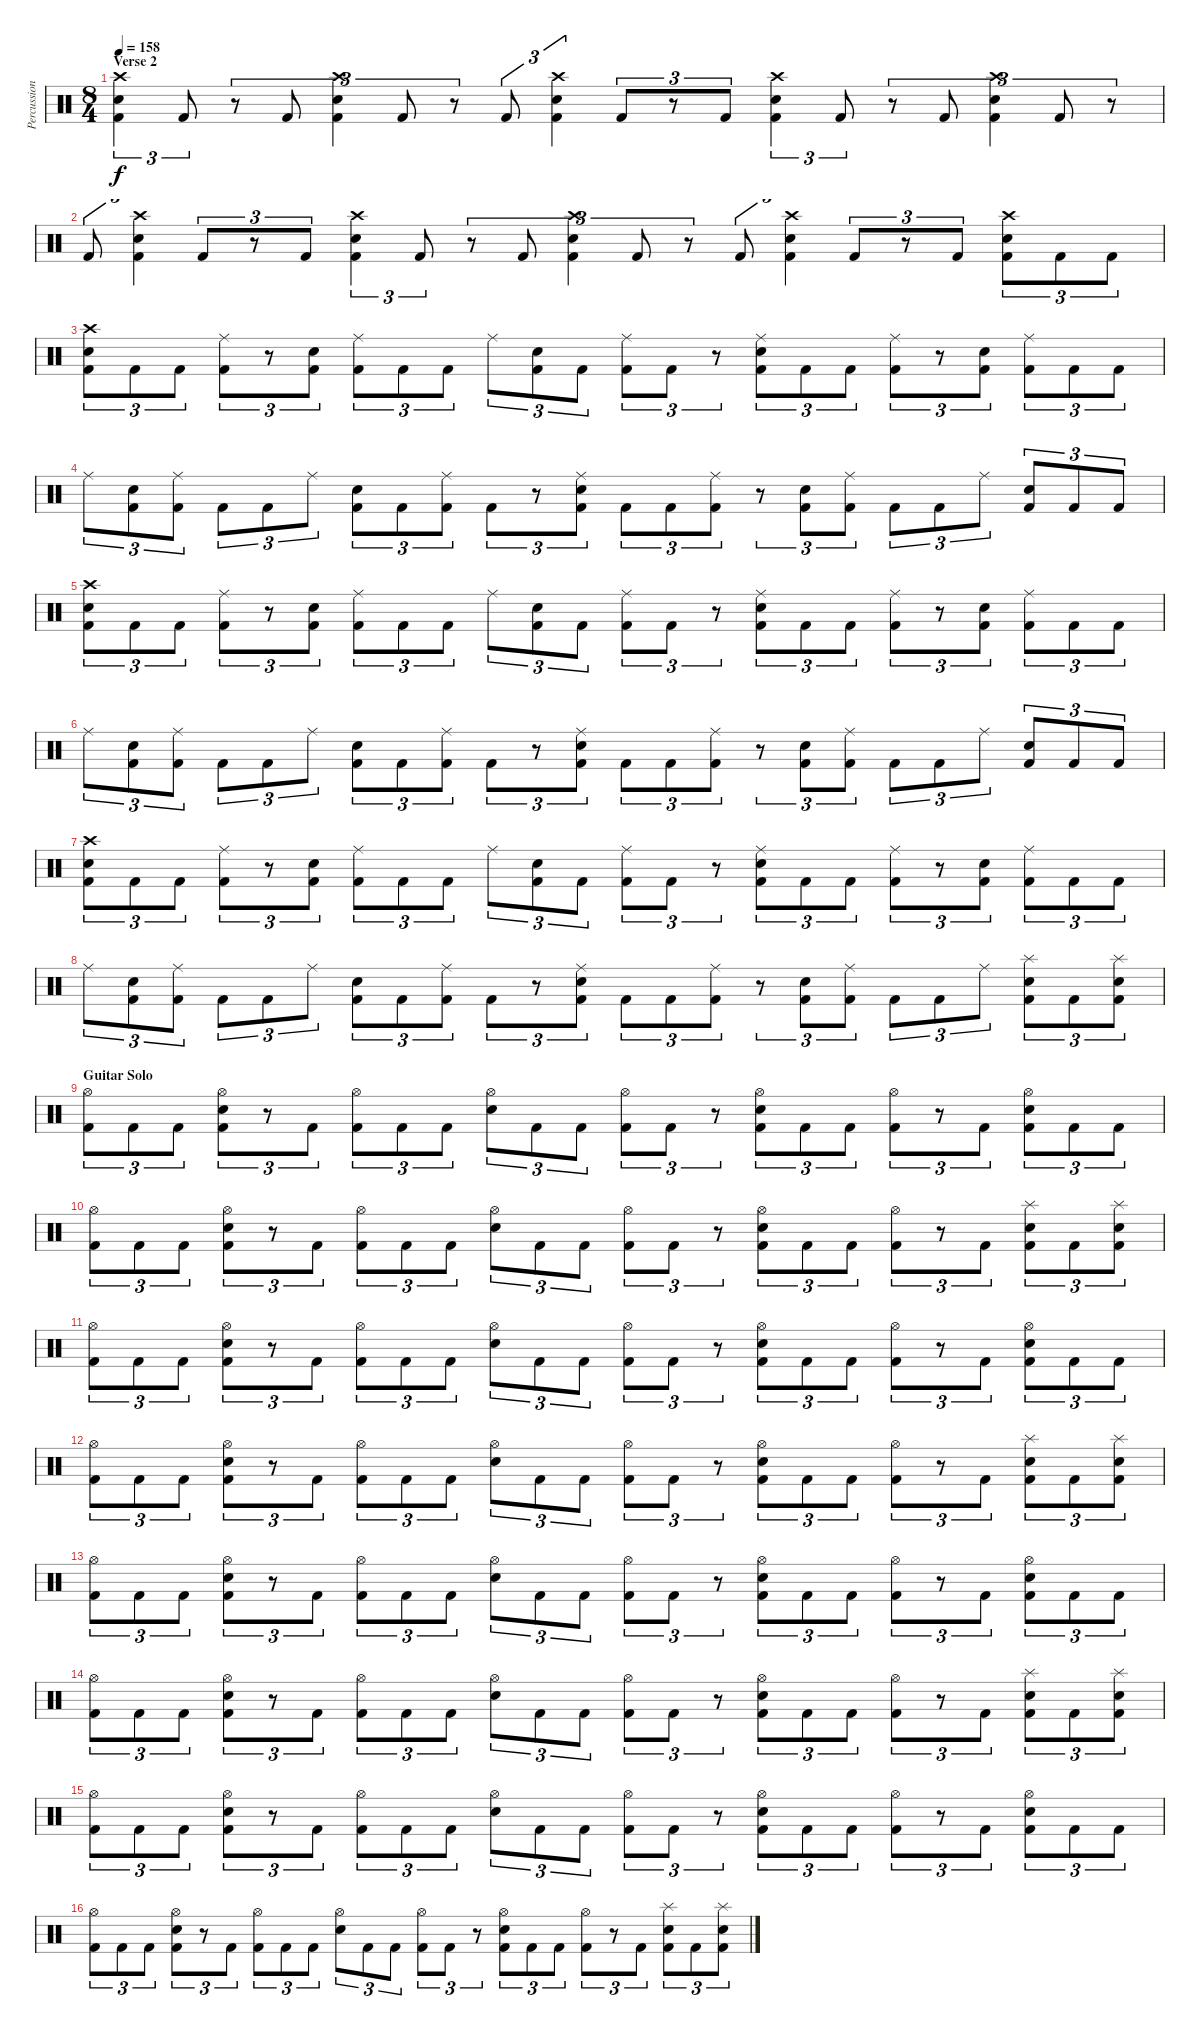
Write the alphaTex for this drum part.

\track ("Percussion" "Percussion") {instrument percussion}
\staff {score}
\articulation defaults
\ts (8 4)
\section ("" "Verse 2")
\tempo 158
\clef neutral
\ks c
("Crash high (hit)" "Electric Snare (hit)" "Kick (hit) 2").4{tu (3 2) dy f} "Kick (hit) 2".8{tu (3 2)} r.8{tu (3 2)} "Kick (hit) 2".8{tu (3 2)} ("Crash high (hit)" "Electric Snare (hit)" "Kick (hit) 2").4{tu (3 2)} "Kick (hit) 2".8{tu (3 2)} r.8{tu (3 2)} "Kick (hit) 2".8{tu (3 2)} ("Crash high (hit)" "Electric Snare (hit)" "Kick (hit) 2").4{tu (3 2)} "Kick (hit) 2".8{tu (3 2)} r.8{tu (3 2)} "Kick (hit) 2".8{tu (3 2)} ("Crash high (hit)" "Electric Snare (hit)" "Kick (hit) 2").4{tu (3 2)} "Kick (hit) 2".8{tu (3 2)} r.8{tu (3 2)} "Kick (hit) 2".8{tu (3 2)} ("Crash high (hit)" "Electric Snare (hit)" "Kick (hit) 2").4{tu (3 2)} "Kick (hit) 2".8{tu (3 2)} r.8{tu (3 2)} |
"Kick (hit) 2".8{tu (3 2)} ("Crash high (hit)" "Electric Snare (hit)" "Kick (hit) 2").4{tu (3 2)} "Kick (hit) 2".8{tu (3 2)} r.8{tu (3 2)} "Kick (hit) 2".8{tu (3 2)} ("Crash high (hit)" "Electric Snare (hit)" "Kick (hit) 2").4{tu (3 2)} "Kick (hit) 2".8{tu (3 2)} r.8{tu (3 2)} "Kick (hit) 2".8{tu (3 2)} ("Crash high (hit)" "Electric Snare (hit)" "Kick (hit) 2").4{tu (3 2)} "Kick (hit) 2".8{tu (3 2)} r.8{tu (3 2)} "Kick (hit) 2".8{tu (3 2)} ("Crash high (hit)" "Electric Snare (hit)" "Kick (hit) 2").4{tu (3 2)} "Kick (hit) 2".8{tu (3 2)} r.8{tu (3 2)} "Kick (hit) 2".8{tu (3 2)} ("Crash high (hit)" "Electric Snare (hit)" "Kick (hit) 2").8{tu (3 2)} "Kick (hit) 2".8{tu (3 2)} "Kick (hit) 2".8{tu (3 2)} |
("Crash high (hit)" "Electric Snare (hit)" "Kick (hit) 2").8{tu (3 2)} "Kick (hit) 2".8{tu (3 2)} "Kick (hit) 2".8{tu (3 2)} ("Ride (middle)" "Kick (hit) 2").8{tu (3 2)} r.8{tu (3 2)} ("Electric Snare (hit)" "Kick (hit) 2").8{tu (3 2)} ("Ride (middle)" "Kick (hit) 2").8{tu (3 2)} "Kick (hit) 2".8{tu (3 2)} "Kick (hit) 2".8{tu (3 2)} "Ride (middle)".8{tu (3 2)} ("Electric Snare (hit)" "Kick (hit) 2").8{tu (3 2)} "Kick (hit) 2".8{tu (3 2)} ("Ride (middle)" "Kick (hit) 2").8{tu (3 2)} "Kick (hit) 2".8{tu (3 2)} r.8{tu (3 2)} ("Ride (middle)" "Electric Snare (hit)" "Kick (hit) 2").8{tu (3 2)} "Kick (hit) 2".8{tu (3 2)} "Kick (hit) 2".8{tu (3 2)} ("Ride (middle)" "Kick (hit) 2").8{tu (3 2)} r.8{tu (3 2)} ("Electric Snare (hit)" "Kick (hit) 2").8{tu (3 2)} ("Ride (middle)" "Kick (hit) 2").8{tu (3 2)} "Kick (hit) 2".8{tu (3 2)} "Kick (hit) 2".8{tu (3 2)} |
"Ride (middle)".8{tu (3 2)} ("Electric Snare (hit)" "Kick (hit) 2").8{tu (3 2)} ("Ride (middle)" "Kick (hit) 2").8{tu (3 2)} "Kick (hit) 2".8{tu (3 2)} "Kick (hit) 2".8{tu (3 2)} "Ride (middle)".8{tu (3 2)} ("Electric Snare (hit)" "Kick (hit) 2").8{tu (3 2)} "Kick (hit) 2".8{tu (3 2)} ("Ride (middle)" "Kick (hit) 2").8{tu (3 2)} "Kick (hit) 2".8{tu (3 2)} r.8{tu (3 2)} ("Ride (middle)" "Electric Snare (hit)" "Kick (hit) 2").8{tu (3 2)} "Kick (hit) 2".8{tu (3 2)} "Kick (hit) 2".8{tu (3 2)} ("Ride (middle)" "Kick (hit) 2").8{tu (3 2)} r.8{tu (3 2)} ("Electric Snare (hit)" "Kick (hit) 2").8{tu (3 2)} ("Ride (middle)" "Kick (hit) 2").8{tu (3 2)} "Kick (hit) 2".8{tu (3 2)} "Kick (hit) 2".8{tu (3 2)} "Ride (middle)".8{tu (3 2)} ("Electric Snare (hit)" "Kick (hit) 2").8{tu (3 2)} "Kick (hit) 2".8{tu (3 2)} "Kick (hit) 2".8{tu (3 2)} |
("Crash high (hit)" "Electric Snare (hit)" "Kick (hit) 2").8{tu (3 2)} "Kick (hit) 2".8{tu (3 2)} "Kick (hit) 2".8{tu (3 2)} ("Ride (middle)" "Kick (hit) 2").8{tu (3 2)} r.8{tu (3 2)} ("Electric Snare (hit)" "Kick (hit) 2").8{tu (3 2)} ("Ride (middle)" "Kick (hit) 2").8{tu (3 2)} "Kick (hit) 2".8{tu (3 2)} "Kick (hit) 2".8{tu (3 2)} "Ride (middle)".8{tu (3 2)} ("Electric Snare (hit)" "Kick (hit) 2").8{tu (3 2)} "Kick (hit) 2".8{tu (3 2)} ("Ride (middle)" "Kick (hit) 2").8{tu (3 2)} "Kick (hit) 2".8{tu (3 2)} r.8{tu (3 2)} ("Ride (middle)" "Electric Snare (hit)" "Kick (hit) 2").8{tu (3 2)} "Kick (hit) 2".8{tu (3 2)} "Kick (hit) 2".8{tu (3 2)} ("Ride (middle)" "Kick (hit) 2").8{tu (3 2)} r.8{tu (3 2)} ("Electric Snare (hit)" "Kick (hit) 2").8{tu (3 2)} ("Ride (middle)" "Kick (hit) 2").8{tu (3 2)} "Kick (hit) 2".8{tu (3 2)} "Kick (hit) 2".8{tu (3 2)} |
"Ride (middle)".8{tu (3 2)} ("Electric Snare (hit)" "Kick (hit) 2").8{tu (3 2)} ("Ride (middle)" "Kick (hit) 2").8{tu (3 2)} "Kick (hit) 2".8{tu (3 2)} "Kick (hit) 2".8{tu (3 2)} "Ride (middle)".8{tu (3 2)} ("Electric Snare (hit)" "Kick (hit) 2").8{tu (3 2)} "Kick (hit) 2".8{tu (3 2)} ("Ride (middle)" "Kick (hit) 2").8{tu (3 2)} "Kick (hit) 2".8{tu (3 2)} r.8{tu (3 2)} ("Ride (middle)" "Electric Snare (hit)" "Kick (hit) 2").8{tu (3 2)} "Kick (hit) 2".8{tu (3 2)} "Kick (hit) 2".8{tu (3 2)} ("Ride (middle)" "Kick (hit) 2").8{tu (3 2)} r.8{tu (3 2)} ("Electric Snare (hit)" "Kick (hit) 2").8{tu (3 2)} ("Ride (middle)" "Kick (hit) 2").8{tu (3 2)} "Kick (hit) 2".8{tu (3 2)} "Kick (hit) 2".8{tu (3 2)} "Ride (middle)".8{tu (3 2)} ("Electric Snare (hit)" "Kick (hit) 2").8{tu (3 2)} "Kick (hit) 2".8{tu (3 2)} "Kick (hit) 2".8{tu (3 2)} |
("Crash high (hit)" "Electric Snare (hit)" "Kick (hit) 2").8{tu (3 2)} "Kick (hit) 2".8{tu (3 2)} "Kick (hit) 2".8{tu (3 2)} ("Ride (middle)" "Kick (hit) 2").8{tu (3 2)} r.8{tu (3 2)} ("Electric Snare (hit)" "Kick (hit) 2").8{tu (3 2)} ("Ride (middle)" "Kick (hit) 2").8{tu (3 2)} "Kick (hit) 2".8{tu (3 2)} "Kick (hit) 2".8{tu (3 2)} "Ride (middle)".8{tu (3 2)} ("Electric Snare (hit)" "Kick (hit) 2").8{tu (3 2)} "Kick (hit) 2".8{tu (3 2)} ("Ride (middle)" "Kick (hit) 2").8{tu (3 2)} "Kick (hit) 2".8{tu (3 2)} r.8{tu (3 2)} ("Ride (middle)" "Electric Snare (hit)" "Kick (hit) 2").8{tu (3 2)} "Kick (hit) 2".8{tu (3 2)} "Kick (hit) 2".8{tu (3 2)} ("Ride (middle)" "Kick (hit) 2").8{tu (3 2)} r.8{tu (3 2)} ("Electric Snare (hit)" "Kick (hit) 2").8{tu (3 2)} ("Ride (middle)" "Kick (hit) 2").8{tu (3 2)} "Kick (hit) 2".8{tu (3 2)} "Kick (hit) 2".8{tu (3 2)} |
"Ride (middle)".8{tu (3 2)} ("Electric Snare (hit)" "Kick (hit) 2").8{tu (3 2)} ("Ride (middle)" "Kick (hit) 2").8{tu (3 2)} "Kick (hit) 2".8{tu (3 2)} "Kick (hit) 2".8{tu (3 2)} "Ride (middle)".8{tu (3 2)} ("Electric Snare (hit)" "Kick (hit) 2").8{tu (3 2)} "Kick (hit) 2".8{tu (3 2)} ("Ride (middle)" "Kick (hit) 2").8{tu (3 2)} "Kick (hit) 2".8{tu (3 2)} r.8{tu (3 2)} ("Ride (middle)" "Electric Snare (hit)" "Kick (hit) 2").8{tu (3 2)} "Kick (hit) 2".8{tu (3 2)} "Kick (hit) 2".8{tu (3 2)} ("Ride (middle)" "Kick (hit) 2").8{tu (3 2)} r.8{tu (3 2)} ("Electric Snare (hit)" "Kick (hit) 2").8{tu (3 2)} ("Ride (middle)" "Kick (hit) 2").8{tu (3 2)} "Kick (hit) 2".8{tu (3 2)} "Kick (hit) 2".8{tu (3 2)} "Ride (middle)".8{tu (3 2)} ("Splash (hit)" "Electric Snare (hit)" "Kick (hit) 2").8{tu (3 2)} "Kick (hit) 2".8{tu (3 2)} ("Splash (hit)" "Electric Snare (hit)" "Kick (hit) 2").8{tu (3 2)} |
\section ("" "Guitar Solo")
("Hi-Hat (open)" "Kick (hit) 2").8{tu (3 2)} "Kick (hit) 2".8{tu (3 2)} "Kick (hit) 2".8{tu (3 2)} ("Hi-Hat (open)" "Electric Snare (hit)" "Kick (hit) 2").8{tu (3 2)} r.8{tu (3 2)} "Kick (hit) 2".8{tu (3 2)} ("Hi-Hat (open)" "Kick (hit) 2").8{tu (3 2)} "Kick (hit) 2".8{tu (3 2)} "Kick (hit) 2".8{tu (3 2)} ("Hi-Hat (open)" "Electric Snare (hit)").8{tu (3 2)} "Kick (hit) 2".8{tu (3 2)} "Kick (hit) 2".8{tu (3 2)} ("Hi-Hat (open)" "Kick (hit) 2").8{tu (3 2)} "Kick (hit) 2".8{tu (3 2)} r.8{tu (3 2)} ("Hi-Hat (open)" "Electric Snare (hit)" "Kick (hit) 2").8{tu (3 2)} "Kick (hit) 2".8{tu (3 2)} "Kick (hit) 2".8{tu (3 2)} ("Hi-Hat (open)" "Kick (hit) 2").8{tu (3 2)} r.8{tu (3 2)} "Kick (hit) 2".8{tu (3 2)} ("Hi-Hat (open)" "Electric Snare (hit)" "Kick (hit) 2").8{tu (3 2)} "Kick (hit) 2".8{tu (3 2)} "Kick (hit) 2".8{tu (3 2)} |
("Hi-Hat (open)" "Kick (hit) 2").8{tu (3 2)} "Kick (hit) 2".8{tu (3 2)} "Kick (hit) 2".8{tu (3 2)} ("Hi-Hat (open)" "Electric Snare (hit)" "Kick (hit) 2").8{tu (3 2)} r.8{tu (3 2)} "Kick (hit) 2".8{tu (3 2)} ("Hi-Hat (open)" "Kick (hit) 2").8{tu (3 2)} "Kick (hit) 2".8{tu (3 2)} "Kick (hit) 2".8{tu (3 2)} ("Hi-Hat (open)" "Electric Snare (hit)").8{tu (3 2)} "Kick (hit) 2".8{tu (3 2)} "Kick (hit) 2".8{tu (3 2)} ("Hi-Hat (open)" "Kick (hit) 2").8{tu (3 2)} "Kick (hit) 2".8{tu (3 2)} r.8{tu (3 2)} ("Hi-Hat (open)" "Electric Snare (hit)" "Kick (hit) 2").8{tu (3 2)} "Kick (hit) 2".8{tu (3 2)} "Kick (hit) 2".8{tu (3 2)} ("Hi-Hat (open)" "Kick (hit) 2").8{tu (3 2)} r.8{tu (3 2)} "Kick (hit) 2".8{tu (3 2)} ("Splash (hit)" "Electric Snare (hit)" "Kick (hit) 2").8{tu (3 2)} "Kick (hit) 2".8{tu (3 2)} ("Splash (hit)" "Electric Snare (hit)" "Kick (hit) 2").8{tu (3 2)} |
("Hi-Hat (open)" "Kick (hit) 2").8{tu (3 2)} "Kick (hit) 2".8{tu (3 2)} "Kick (hit) 2".8{tu (3 2)} ("Hi-Hat (open)" "Electric Snare (hit)" "Kick (hit) 2").8{tu (3 2)} r.8{tu (3 2)} "Kick (hit) 2".8{tu (3 2)} ("Hi-Hat (open)" "Kick (hit) 2").8{tu (3 2)} "Kick (hit) 2".8{tu (3 2)} "Kick (hit) 2".8{tu (3 2)} ("Hi-Hat (open)" "Electric Snare (hit)").8{tu (3 2)} "Kick (hit) 2".8{tu (3 2)} "Kick (hit) 2".8{tu (3 2)} ("Hi-Hat (open)" "Kick (hit) 2").8{tu (3 2)} "Kick (hit) 2".8{tu (3 2)} r.8{tu (3 2)} ("Hi-Hat (open)" "Electric Snare (hit)" "Kick (hit) 2").8{tu (3 2)} "Kick (hit) 2".8{tu (3 2)} "Kick (hit) 2".8{tu (3 2)} ("Hi-Hat (open)" "Kick (hit) 2").8{tu (3 2)} r.8{tu (3 2)} "Kick (hit) 2".8{tu (3 2)} ("Hi-Hat (open)" "Electric Snare (hit)" "Kick (hit) 2").8{tu (3 2)} "Kick (hit) 2".8{tu (3 2)} "Kick (hit) 2".8{tu (3 2)} |
("Hi-Hat (open)" "Kick (hit) 2").8{tu (3 2)} "Kick (hit) 2".8{tu (3 2)} "Kick (hit) 2".8{tu (3 2)} ("Hi-Hat (open)" "Electric Snare (hit)" "Kick (hit) 2").8{tu (3 2)} r.8{tu (3 2)} "Kick (hit) 2".8{tu (3 2)} ("Hi-Hat (open)" "Kick (hit) 2").8{tu (3 2)} "Kick (hit) 2".8{tu (3 2)} "Kick (hit) 2".8{tu (3 2)} ("Hi-Hat (open)" "Electric Snare (hit)").8{tu (3 2)} "Kick (hit) 2".8{tu (3 2)} "Kick (hit) 2".8{tu (3 2)} ("Hi-Hat (open)" "Kick (hit) 2").8{tu (3 2)} "Kick (hit) 2".8{tu (3 2)} r.8{tu (3 2)} ("Hi-Hat (open)" "Electric Snare (hit)" "Kick (hit) 2").8{tu (3 2)} "Kick (hit) 2".8{tu (3 2)} "Kick (hit) 2".8{tu (3 2)} ("Hi-Hat (open)" "Kick (hit) 2").8{tu (3 2)} r.8{tu (3 2)} "Kick (hit) 2".8{tu (3 2)} ("Splash (hit)" "Electric Snare (hit)" "Kick (hit) 2").8{tu (3 2)} "Kick (hit) 2".8{tu (3 2)} ("Splash (hit)" "Electric Snare (hit)" "Kick (hit) 2").8{tu (3 2)} |
("Hi-Hat (open)" "Kick (hit) 2").8{tu (3 2)} "Kick (hit) 2".8{tu (3 2)} "Kick (hit) 2".8{tu (3 2)} ("Hi-Hat (open)" "Electric Snare (hit)" "Kick (hit) 2").8{tu (3 2)} r.8{tu (3 2)} "Kick (hit) 2".8{tu (3 2)} ("Hi-Hat (open)" "Kick (hit) 2").8{tu (3 2)} "Kick (hit) 2".8{tu (3 2)} "Kick (hit) 2".8{tu (3 2)} ("Hi-Hat (open)" "Electric Snare (hit)").8{tu (3 2)} "Kick (hit) 2".8{tu (3 2)} "Kick (hit) 2".8{tu (3 2)} ("Hi-Hat (open)" "Kick (hit) 2").8{tu (3 2)} "Kick (hit) 2".8{tu (3 2)} r.8{tu (3 2)} ("Hi-Hat (open)" "Electric Snare (hit)" "Kick (hit) 2").8{tu (3 2)} "Kick (hit) 2".8{tu (3 2)} "Kick (hit) 2".8{tu (3 2)} ("Hi-Hat (open)" "Kick (hit) 2").8{tu (3 2)} r.8{tu (3 2)} "Kick (hit) 2".8{tu (3 2)} ("Hi-Hat (open)" "Electric Snare (hit)" "Kick (hit) 2").8{tu (3 2)} "Kick (hit) 2".8{tu (3 2)} "Kick (hit) 2".8{tu (3 2)} |
("Hi-Hat (open)" "Kick (hit) 2").8{tu (3 2)} "Kick (hit) 2".8{tu (3 2)} "Kick (hit) 2".8{tu (3 2)} ("Hi-Hat (open)" "Electric Snare (hit)" "Kick (hit) 2").8{tu (3 2)} r.8{tu (3 2)} "Kick (hit) 2".8{tu (3 2)} ("Hi-Hat (open)" "Kick (hit) 2").8{tu (3 2)} "Kick (hit) 2".8{tu (3 2)} "Kick (hit) 2".8{tu (3 2)} ("Hi-Hat (open)" "Electric Snare (hit)").8{tu (3 2)} "Kick (hit) 2".8{tu (3 2)} "Kick (hit) 2".8{tu (3 2)} ("Hi-Hat (open)" "Kick (hit) 2").8{tu (3 2)} "Kick (hit) 2".8{tu (3 2)} r.8{tu (3 2)} ("Hi-Hat (open)" "Electric Snare (hit)" "Kick (hit) 2").8{tu (3 2)} "Kick (hit) 2".8{tu (3 2)} "Kick (hit) 2".8{tu (3 2)} ("Hi-Hat (open)" "Kick (hit) 2").8{tu (3 2)} r.8{tu (3 2)} "Kick (hit) 2".8{tu (3 2)} ("Splash (hit)" "Electric Snare (hit)" "Kick (hit) 2").8{tu (3 2)} "Kick (hit) 2".8{tu (3 2)} ("Splash (hit)" "Electric Snare (hit)" "Kick (hit) 2").8{tu (3 2)} |
("Hi-Hat (open)" "Kick (hit) 2").8{tu (3 2)} "Kick (hit) 2".8{tu (3 2)} "Kick (hit) 2".8{tu (3 2)} ("Hi-Hat (open)" "Electric Snare (hit)" "Kick (hit) 2").8{tu (3 2)} r.8{tu (3 2)} "Kick (hit) 2".8{tu (3 2)} ("Hi-Hat (open)" "Kick (hit) 2").8{tu (3 2)} "Kick (hit) 2".8{tu (3 2)} "Kick (hit) 2".8{tu (3 2)} ("Hi-Hat (open)" "Electric Snare (hit)").8{tu (3 2)} "Kick (hit) 2".8{tu (3 2)} "Kick (hit) 2".8{tu (3 2)} ("Hi-Hat (open)" "Kick (hit) 2").8{tu (3 2)} "Kick (hit) 2".8{tu (3 2)} r.8{tu (3 2)} ("Hi-Hat (open)" "Electric Snare (hit)" "Kick (hit) 2").8{tu (3 2)} "Kick (hit) 2".8{tu (3 2)} "Kick (hit) 2".8{tu (3 2)} ("Hi-Hat (open)" "Kick (hit) 2").8{tu (3 2)} r.8{tu (3 2)} "Kick (hit) 2".8{tu (3 2)} ("Hi-Hat (open)" "Electric Snare (hit)" "Kick (hit) 2").8{tu (3 2)} "Kick (hit) 2".8{tu (3 2)} "Kick (hit) 2".8{tu (3 2)} |
("Hi-Hat (open)" "Kick (hit) 2").8{tu (3 2)} "Kick (hit) 2".8{tu (3 2)} "Kick (hit) 2".8{tu (3 2)} ("Hi-Hat (open)" "Electric Snare (hit)" "Kick (hit) 2").8{tu (3 2)} r.8{tu (3 2)} "Kick (hit) 2".8{tu (3 2)} ("Hi-Hat (open)" "Kick (hit) 2").8{tu (3 2)} "Kick (hit) 2".8{tu (3 2)} "Kick (hit) 2".8{tu (3 2)} ("Hi-Hat (open)" "Electric Snare (hit)").8{tu (3 2)} "Kick (hit) 2".8{tu (3 2)} "Kick (hit) 2".8{tu (3 2)} ("Hi-Hat (open)" "Kick (hit) 2").8{tu (3 2)} "Kick (hit) 2".8{tu (3 2)} r.8{tu (3 2)} ("Hi-Hat (open)" "Electric Snare (hit)" "Kick (hit) 2").8{tu (3 2)} "Kick (hit) 2".8{tu (3 2)} "Kick (hit) 2".8{tu (3 2)} ("Hi-Hat (open)" "Kick (hit) 2").8{tu (3 2)} r.8{tu (3 2)} "Kick (hit) 2".8{tu (3 2)} ("Splash (hit)" "Electric Snare (hit)" "Kick (hit) 2").8{tu (3 2)} "Kick (hit) 2".8{tu (3 2)} ("Splash (hit)" "Electric Snare (hit)" "Kick (hit) 2").8{tu (3 2)}
